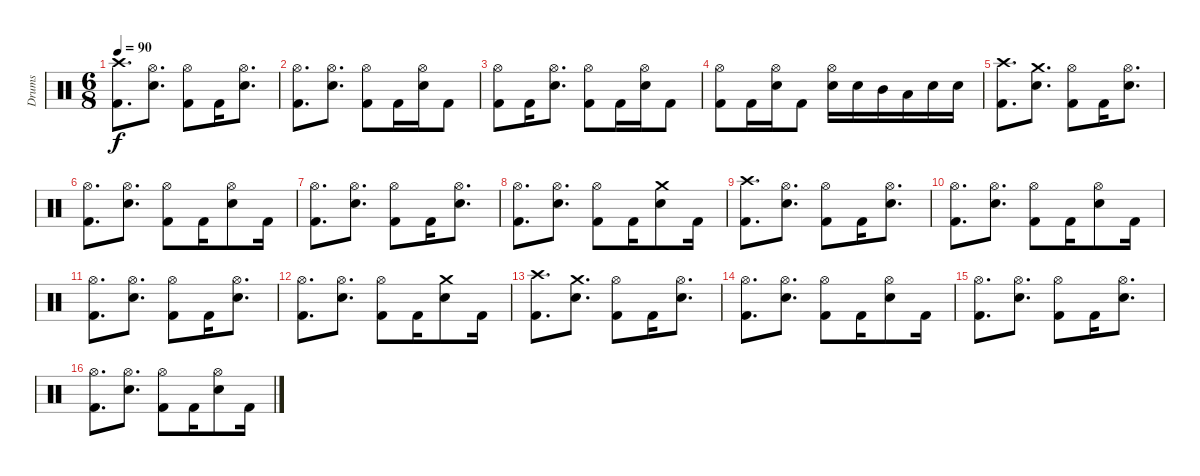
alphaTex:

\track ("Drums" "Drums") {instrument percussion}
\staff {score}
\articulation defaults
\ts (6 8)
\tempo 90
\clef neutral
\ks c
("Kick (hit) 2" "Crash high (hit)").8{d dy f} ("Electric Snare (hit)" "Hi-Hat (open)").8{d} ("Kick (hit) 2" "Hi-Hat (open)").8 "Kick (hit) 2".16 ("Electric Snare (hit)" "Hi-Hat (open)").8{d} |
("Kick (hit) 2" "Hi-Hat (open)").8{d} ("Electric Snare (hit)" "Hi-Hat (open)").8{d} ("Kick (hit) 2" "Hi-Hat (open)").8 "Kick (hit) 2".16 ("Electric Snare (hit)" "Hi-Hat (open)").16 "Kick (hit) 2".8 |
("Kick (hit) 2" "Hi-Hat (open)").8 "Kick (hit) 2".16 ("Electric Snare (hit)" "Hi-Hat (open)").8{d} ("Kick (hit) 2" "Hi-Hat (open)").8 "Kick (hit) 2".16 ("Electric Snare (hit)" "Hi-Hat (open)").16 "Kick (hit) 2".8 |
("Kick (hit) 2" "Hi-Hat (open)").8 "Kick (hit) 2".16 ("Electric Snare (hit)" "Hi-Hat (open)").16 "Kick (hit) 2".8 ("Electric Snare (hit)" "Hi-Hat (open)").16 "Electric Snare (hit)".16 "Mid Tom (hit)".16 "Low Tom (hit)".16 "Electric Snare (hit)".16 "Electric Snare (hit)".16 |
("Kick (hit) 2" "Crash high (hit)").8{d} ("Electric Snare (hit)" "Crash medium (hit)").8{d} ("Kick (hit) 2" "Hi-Hat (open)").8 "Kick (hit) 2".16 ("Electric Snare (hit)" "Hi-Hat (open)").8{d} |
("Kick (hit) 2" "Hi-Hat (open)").8{d} ("Electric Snare (hit)" "Hi-Hat (open)").8{d} ("Kick (hit) 2" "Hi-Hat (open)").8 "Kick (hit) 2".16 ("Electric Snare (hit)" "Hi-Hat (open)").8 "Kick (hit) 2".16 |
("Kick (hit) 2" "Hi-Hat (open)").8{d} ("Electric Snare (hit)" "Hi-Hat (open)").8{d} ("Kick (hit) 2" "Hi-Hat (open)").8 "Kick (hit) 2".16 ("Electric Snare (hit)" "Hi-Hat (open)").8{d} |
("Kick (hit) 2" "Hi-Hat (open)").8{d} ("Electric Snare (hit)" "Hi-Hat (open)").8{d} ("Kick (hit) 2" "Hi-Hat (open)").8 "Kick (hit) 2".16 ("Electric Snare (hit)" "Crash medium (hit)").8 "Kick (hit) 2".16 |
("Kick (hit) 2" "Crash high (hit)").8{d} ("Electric Snare (hit)" "Hi-Hat (open)").8{d} ("Kick (hit) 2" "Hi-Hat (open)").8 "Kick (hit) 2".16 ("Electric Snare (hit)" "Hi-Hat (open)").8{d} |
("Kick (hit) 2" "Hi-Hat (open)").8{d} ("Electric Snare (hit)" "Hi-Hat (open)").8{d} ("Kick (hit) 2" "Hi-Hat (open)").8 "Kick (hit) 2".16 ("Electric Snare (hit)" "Hi-Hat (open)").8 "Kick (hit) 2".16 |
("Kick (hit) 2" "Hi-Hat (open)").8{d} ("Electric Snare (hit)" "Hi-Hat (open)").8{d} ("Kick (hit) 2" "Hi-Hat (open)").8 "Kick (hit) 2".16 ("Electric Snare (hit)" "Hi-Hat (open)").8{d} |
("Kick (hit) 2" "Hi-Hat (open)").8{d} ("Electric Snare (hit)" "Hi-Hat (open)").8{d} ("Kick (hit) 2" "Hi-Hat (open)").8 "Kick (hit) 2".16 ("Electric Snare (hit)" "Crash medium (hit)").8 "Kick (hit) 2".16 |
("Kick (hit) 2" "Crash high (hit)").8{d} ("Electric Snare (hit)" "Crash medium (hit)").8{d} ("Kick (hit) 2" "Hi-Hat (open)").8 "Kick (hit) 2".16 ("Electric Snare (hit)" "Hi-Hat (open)").8{d} |
("Kick (hit) 2" "Hi-Hat (open)").8{d} ("Electric Snare (hit)" "Hi-Hat (open)").8{d} ("Kick (hit) 2" "Hi-Hat (open)").8 "Kick (hit) 2".16 ("Electric Snare (hit)" "Hi-Hat (open)").8 "Kick (hit) 2".16 |
("Kick (hit) 2" "Hi-Hat (open)").8{d} ("Electric Snare (hit)" "Hi-Hat (open)").8{d} ("Kick (hit) 2" "Hi-Hat (open)").8 "Kick (hit) 2".16 ("Electric Snare (hit)" "Hi-Hat (open)").8{d} |
("Kick (hit) 2" "Hi-Hat (open)").8{d} ("Electric Snare (hit)" "Hi-Hat (open)").8{d} ("Kick (hit) 2" "Hi-Hat (open)").8 "Kick (hit) 2".16 ("Electric Snare (hit)" "Hi-Hat (open)").8 "Kick (hit) 2".16
